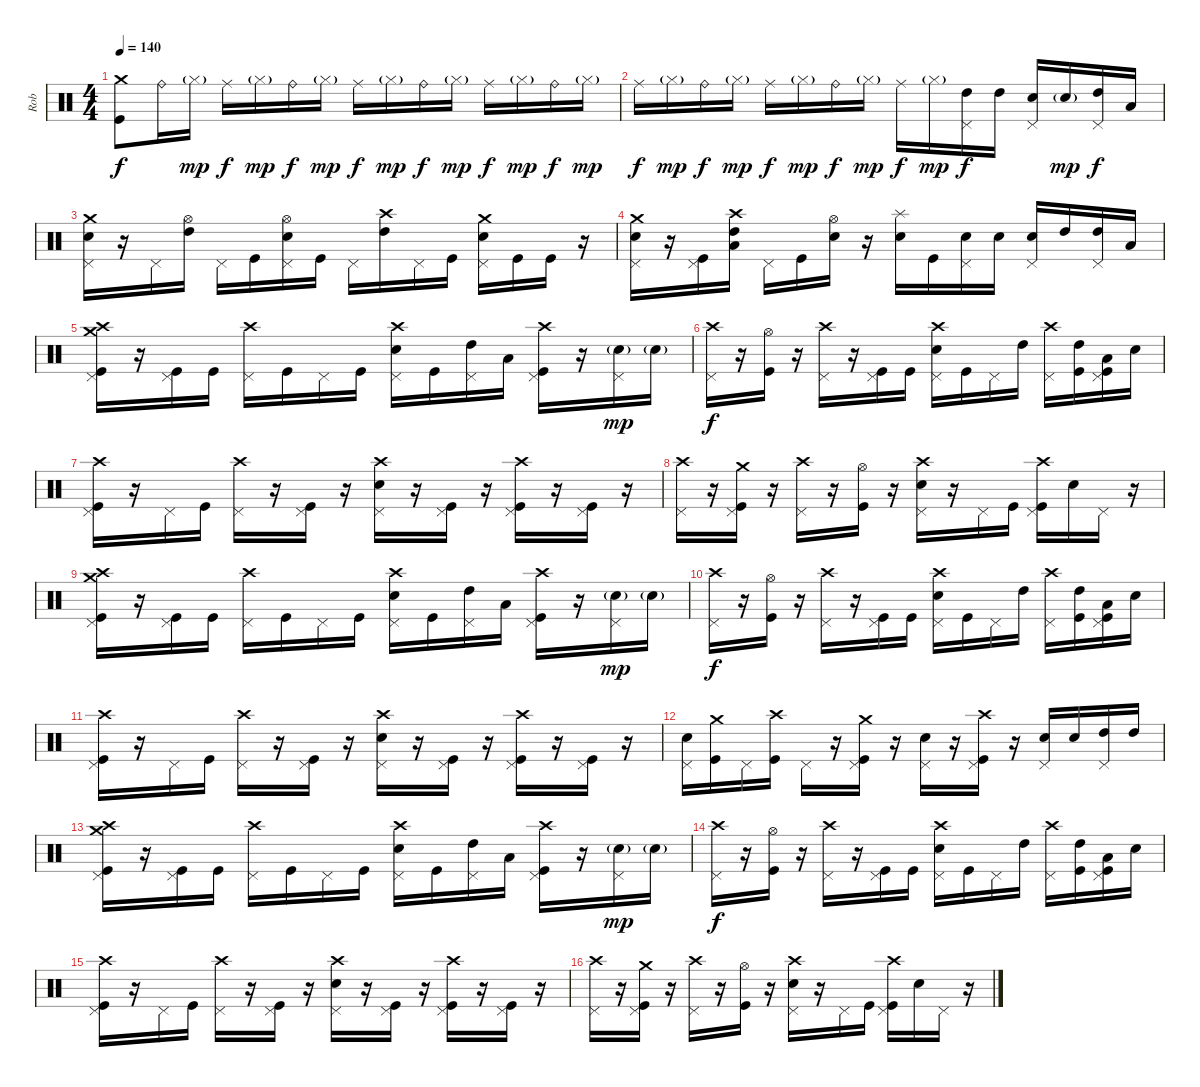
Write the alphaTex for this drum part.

\track ("Rob" "Rob") {instrument percussion}
\staff {score}
\articulation defaults
\ts (4 4)
\tempo 140
\clef neutral
\ks c
("Crash medium (hit)" "Kick (hit)").8{dy f} "Ride (bell)".16 "Hi-Hat (closed)"{g}.16{dy mp} "Ride (middle)".16{dy f} "Hi-Hat (closed)"{g}.16{dy mp} "Ride (bell)".16{dy f} "Hi-Hat (closed)"{g}.16{dy mp} "Ride (middle)".16{dy f} "Hi-Hat (closed)"{g}.16{dy mp} "Ride (bell)".16{dy f} "Hi-Hat (closed)"{g}.16{dy mp} "Ride (middle)".16{dy f} "Hi-Hat (closed)"{g}.16{dy mp} "Ride (bell)".16{dy f} "Hi-Hat (closed)"{g}.16{dy mp} |
"Ride (middle)".16{dy f} "Hi-Hat (closed)"{g}.16{dy mp} "Ride (bell)".16{dy f} "Hi-Hat (closed)"{g}.16{dy mp} "Ride (middle)".16{dy f} "Hi-Hat (closed)"{g}.16{dy mp} "Ride (bell)".16{dy f} "Hi-Hat (closed)"{g}.16{dy mp} "Ride (middle)".16{dy f} "Hi-Hat (closed)"{g}.16{dy mp} ("High Tom (hit)" "Pedal Hi-Hat (hit)").16{dy f} "High Tom (hit)".16 ("Electric Snare (hit)" "Pedal Hi-Hat (hit)").16 "Electric Snare (hit)"{g}.16{dy mp} ("High Tom (hit)" "Pedal Hi-Hat (hit)").16{dy f} "Low Tom (hit)".16 |
("Electric Snare (hit)" "Crash medium (hit)" "Pedal Hi-Hat (hit)").16 r.16 "Pedal Hi-Hat (hit)".16 ("High Tom (hit)" "Hi-Hat (open)").16 "Pedal Hi-Hat (hit)".16 "Kick (hit)".16 ("Electric Snare (hit)" "Hi-Hat (open)" "Pedal Hi-Hat (hit)").16 "Kick (hit)".16 "Pedal Hi-Hat (hit)".16 ("High Tom (hit)" "Crash high (hit)").16 "Pedal Hi-Hat (hit)".16 "Kick (hit)".16 ("Electric Snare (hit)" "Crash medium (hit)" "Pedal Hi-Hat (hit)").16 "Kick (hit)".16 "Kick (hit)".16 r.16 |
("Electric Snare (hit)" "Pedal Hi-Hat (hit)" "Crash medium (hit)").16 r.16 ("Pedal Hi-Hat (hit)" "Kick (hit)").16 ("Low Tom (hit)" "High Tom (hit)" "Crash high (hit)").16 "Pedal Hi-Hat (hit)".16 "Kick (hit)".16 ("Electric Snare (hit)" "Hi-Hat (open)").16 r.16 ("Electric Snare (hit)" "Splash (hit)").16 "Kick (hit)".16 ("Electric Snare (hit)" "Pedal Hi-Hat (hit)").16 "Electric Snare (hit)".16 ("Electric Snare (hit)" "Pedal Hi-Hat (hit)").16 "High Tom (hit)".16 ("High Tom (hit)" "Pedal Hi-Hat (hit)").16 "Low Tom (hit)".16 |
("Crash medium (hit)" "Crash high (hit)" "Pedal Hi-Hat (hit)" "Kick (hit)").16 r.16 ("Pedal Hi-Hat (hit)" "Kick (hit)").16 "Kick (hit)".16 ("Crash high (hit)" "Pedal Hi-Hat (hit)").16 "Kick (hit)".16 "Pedal Hi-Hat (hit)".16 "Kick (hit)".16 ("Electric Snare (hit)" "Crash high (hit)" "Pedal Hi-Hat (hit)").16 "Kick (hit)".16 ("High Tom (hit)" "Pedal Hi-Hat (hit)").16 "Low Tom (hit)".16 ("Crash high (hit)" "Pedal Hi-Hat (hit)" "Kick (hit)").16 r.16 ("Electric Snare (hit)"{g} "Pedal Hi-Hat (hit)").16{dy mp} "Electric Snare (hit)"{g}.16 |
("Crash high (hit)" "Pedal Hi-Hat (hit)").16{dy f} r.16 ("Hi-Hat (open)" "Kick (hit)").16 r.16 ("Crash high (hit)" "Pedal Hi-Hat (hit)").16 r.16 ("Pedal Hi-Hat (hit)" "Kick (hit)").16 "Kick (hit)".16 ("Electric Snare (hit)" "Crash high (hit)" "Pedal Hi-Hat (hit)").16 "Kick (hit)".16 "Pedal Hi-Hat (hit)".16 "High Tom (hit)".16 ("Crash high (hit)" "Pedal Hi-Hat (hit)").16 ("High Tom (hit)" "Kick (hit)").16 ("Low Tom (hit)" "Pedal Hi-Hat (hit)" "Kick (hit)").16 "Electric Snare (hit)".16 |
("Crash high (hit)" "Pedal Hi-Hat (hit)" "Kick (hit)").16 r.16 "Pedal Hi-Hat (hit)".16 "Kick (hit)".16 ("Crash high (hit)" "Pedal Hi-Hat (hit)").16 r.16 ("Pedal Hi-Hat (hit)" "Kick (hit)").16 r.16 ("Electric Snare (hit)" "Crash high (hit)" "Pedal Hi-Hat (hit)").16 r.16 ("Pedal Hi-Hat (hit)" "Kick (hit)").16 r.16 ("Crash high (hit)" "Pedal Hi-Hat (hit)" "Kick (hit)").16 r.16 ("Pedal Hi-Hat (hit)" "Kick (hit)").16 r.16 |
("Crash high (hit)" "Pedal Hi-Hat (hit)").16 r.16 ("Crash medium (hit)" "Pedal Hi-Hat (hit)" "Kick (hit)").16 r.16 ("Crash high (hit)" "Pedal Hi-Hat (hit)").16 r.16 ("Hi-Hat (open)" "Kick (hit)").16 r.16 ("Electric Snare (hit)" "Crash high (hit)" "Pedal Hi-Hat (hit)").16 r.16 "Pedal Hi-Hat (hit)".16 "Kick (hit)".16 ("Crash high (hit)" "Pedal Hi-Hat (hit)" "Kick (hit)").16 "Electric Snare (hit)".16 "Pedal Hi-Hat (hit)".16 r.16 |
("Crash medium (hit)" "Crash high (hit)" "Pedal Hi-Hat (hit)" "Kick (hit)").16 r.16 ("Pedal Hi-Hat (hit)" "Kick (hit)").16 "Kick (hit)".16 ("Crash high (hit)" "Pedal Hi-Hat (hit)").16 "Kick (hit)".16 "Pedal Hi-Hat (hit)".16 "Kick (hit)".16 ("Electric Snare (hit)" "Crash high (hit)" "Pedal Hi-Hat (hit)").16 "Kick (hit)".16 ("High Tom (hit)" "Pedal Hi-Hat (hit)").16 "Low Tom (hit)".16 ("Crash high (hit)" "Pedal Hi-Hat (hit)" "Kick (hit)").16 r.16 ("Electric Snare (hit)"{g} "Pedal Hi-Hat (hit)").16{dy mp} "Electric Snare (hit)"{g}.16 |
("Crash high (hit)" "Pedal Hi-Hat (hit)").16{dy f} r.16 ("Hi-Hat (open)" "Kick (hit)").16 r.16 ("Crash high (hit)" "Pedal Hi-Hat (hit)").16 r.16 ("Pedal Hi-Hat (hit)" "Kick (hit)").16 "Kick (hit)".16 ("Electric Snare (hit)" "Crash high (hit)" "Pedal Hi-Hat (hit)").16 "Kick (hit)".16 "Pedal Hi-Hat (hit)".16 "High Tom (hit)".16 ("Crash high (hit)" "Pedal Hi-Hat (hit)").16 ("High Tom (hit)" "Kick (hit)").16 ("Low Tom (hit)" "Pedal Hi-Hat (hit)" "Kick (hit)").16 "Electric Snare (hit)".16 |
("Crash high (hit)" "Pedal Hi-Hat (hit)" "Kick (hit)").16 r.16 "Pedal Hi-Hat (hit)".16 "Kick (hit)".16 ("Crash high (hit)" "Pedal Hi-Hat (hit)").16 r.16 ("Pedal Hi-Hat (hit)" "Kick (hit)").16 r.16 ("Electric Snare (hit)" "Crash high (hit)" "Pedal Hi-Hat (hit)").16 r.16 ("Pedal Hi-Hat (hit)" "Kick (hit)").16 r.16 ("Crash high (hit)" "Pedal Hi-Hat (hit)" "Kick (hit)").16 r.16 ("Pedal Hi-Hat (hit)" "Kick (hit)").16 r.16 |
("Electric Snare (hit)" "Pedal Hi-Hat (hit)").16 ("Crash medium (hit)" "Kick (hit)").16 "Pedal Hi-Hat (hit)".16 ("Crash high (hit)" "Kick (hit)").16 "Pedal Hi-Hat (hit)".16 r.16 ("Crash medium (hit)" "Pedal Hi-Hat (hit)" "Kick (hit)").16 r.16 ("Electric Snare (hit)" "Pedal Hi-Hat (hit)").16 r.16 ("Crash high (hit)" "Pedal Hi-Hat (hit)" "Kick (hit)").16 r.16 ("Electric Snare (hit)" "Pedal Hi-Hat (hit)").16 "Electric Snare (hit)".16 ("High Tom (hit)" "Pedal Hi-Hat (hit)").16 "High Tom (hit)".16 |
("Crash medium (hit)" "Crash high (hit)" "Pedal Hi-Hat (hit)" "Kick (hit)").16 r.16 ("Pedal Hi-Hat (hit)" "Kick (hit)").16 "Kick (hit)".16 ("Crash high (hit)" "Pedal Hi-Hat (hit)").16 "Kick (hit)".16 "Pedal Hi-Hat (hit)".16 "Kick (hit)".16 ("Electric Snare (hit)" "Crash high (hit)" "Pedal Hi-Hat (hit)").16 "Kick (hit)".16 ("High Tom (hit)" "Pedal Hi-Hat (hit)").16 "Low Tom (hit)".16 ("Crash high (hit)" "Pedal Hi-Hat (hit)" "Kick (hit)").16 r.16 ("Electric Snare (hit)"{g} "Pedal Hi-Hat (hit)").16{dy mp} "Electric Snare (hit)"{g}.16 |
("Crash high (hit)" "Pedal Hi-Hat (hit)").16{dy f} r.16 ("Hi-Hat (open)" "Kick (hit)").16 r.16 ("Crash high (hit)" "Pedal Hi-Hat (hit)").16 r.16 ("Pedal Hi-Hat (hit)" "Kick (hit)").16 "Kick (hit)".16 ("Electric Snare (hit)" "Crash high (hit)" "Pedal Hi-Hat (hit)").16 "Kick (hit)".16 "Pedal Hi-Hat (hit)".16 "High Tom (hit)".16 ("Crash high (hit)" "Pedal Hi-Hat (hit)").16 ("High Tom (hit)" "Kick (hit)").16 ("Low Tom (hit)" "Pedal Hi-Hat (hit)" "Kick (hit)").16 "Electric Snare (hit)".16 |
("Crash high (hit)" "Pedal Hi-Hat (hit)" "Kick (hit)").16 r.16 "Pedal Hi-Hat (hit)".16 "Kick (hit)".16 ("Crash high (hit)" "Pedal Hi-Hat (hit)").16 r.16 ("Pedal Hi-Hat (hit)" "Kick (hit)").16 r.16 ("Electric Snare (hit)" "Crash high (hit)" "Pedal Hi-Hat (hit)").16 r.16 ("Pedal Hi-Hat (hit)" "Kick (hit)").16 r.16 ("Crash high (hit)" "Pedal Hi-Hat (hit)" "Kick (hit)").16 r.16 ("Pedal Hi-Hat (hit)" "Kick (hit)").16 r.16 |
("Crash high (hit)" "Pedal Hi-Hat (hit)").16 r.16 ("Crash medium (hit)" "Pedal Hi-Hat (hit)" "Kick (hit)").16 r.16 ("Crash high (hit)" "Pedal Hi-Hat (hit)").16 r.16 ("Hi-Hat (open)" "Kick (hit)").16 r.16 ("Electric Snare (hit)" "Crash high (hit)" "Pedal Hi-Hat (hit)").16 r.16 "Pedal Hi-Hat (hit)".16 "Kick (hit)".16 ("Crash high (hit)" "Pedal Hi-Hat (hit)" "Kick (hit)").16 "Electric Snare (hit)".16 "Pedal Hi-Hat (hit)".16 r.16
